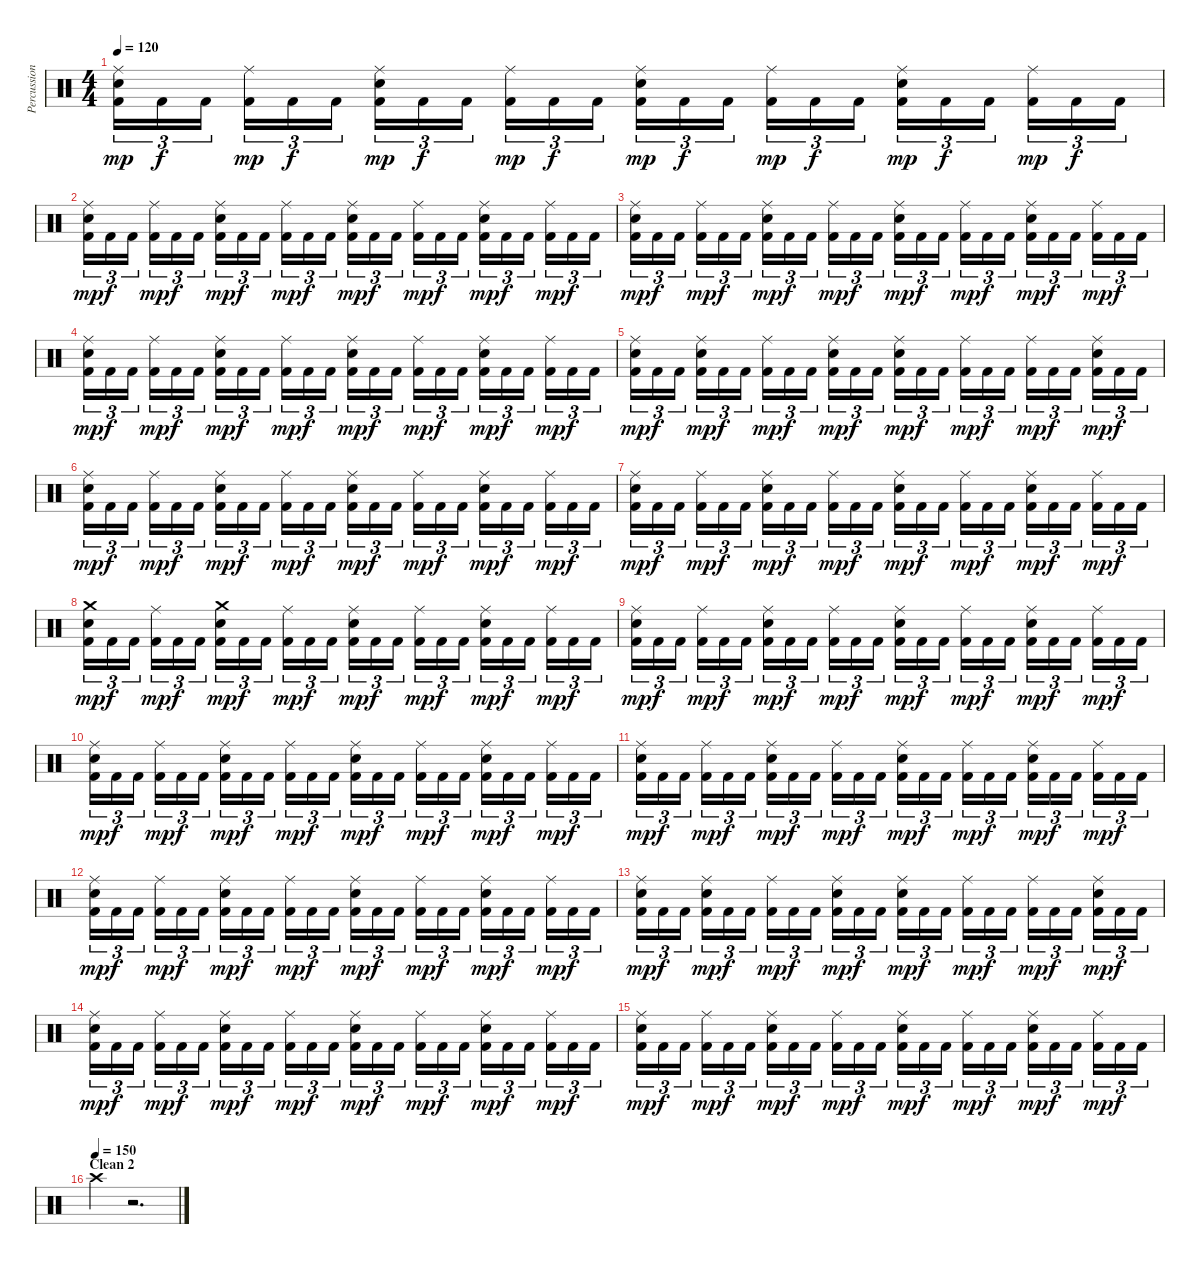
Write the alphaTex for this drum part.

\track ("Percussion" "Percussion") {instrument percussion}
\staff {score}
\articulation defaults
\ts (4 4)
\tempo 120
\clef neutral
\ks c
("Ride (middle)" "Electric Snare (hit)" "Kick (hit) 2").16{tu (3 2) dy mp} "Kick (hit) 2".16{tu (3 2) dy f} "Kick (hit) 2".16{tu (3 2)} ("Ride (middle)" "Kick (hit) 2").16{tu (3 2) dy mp} "Kick (hit) 2".16{tu (3 2) dy f} "Kick (hit) 2".16{tu (3 2)} ("Ride (middle)" "Electric Snare (hit)" "Kick (hit) 2").16{tu (3 2) dy mp} "Kick (hit) 2".16{tu (3 2) dy f} "Kick (hit) 2".16{tu (3 2)} ("Ride (middle)" "Kick (hit) 2").16{tu (3 2) dy mp} "Kick (hit) 2".16{tu (3 2) dy f} "Kick (hit) 2".16{tu (3 2)} ("Ride (middle)" "Electric Snare (hit)" "Kick (hit) 2").16{tu (3 2) dy mp} "Kick (hit) 2".16{tu (3 2) dy f} "Kick (hit) 2".16{tu (3 2)} ("Ride (middle)" "Kick (hit) 2").16{tu (3 2) dy mp} "Kick (hit) 2".16{tu (3 2) dy f} "Kick (hit) 2".16{tu (3 2)} ("Ride (middle)" "Electric Snare (hit)" "Kick (hit) 2").16{tu (3 2) dy mp} "Kick (hit) 2".16{tu (3 2) dy f} "Kick (hit) 2".16{tu (3 2)} ("Ride (middle)" "Kick (hit) 2").16{tu (3 2) dy mp} "Kick (hit) 2".16{tu (3 2) dy f} "Kick (hit) 2".16{tu (3 2)} |
("Ride (middle)" "Electric Snare (hit)" "Kick (hit) 2").16{tu (3 2) dy mp} "Kick (hit) 2".16{tu (3 2) dy f} "Kick (hit) 2".16{tu (3 2)} ("Ride (middle)" "Kick (hit) 2").16{tu (3 2) dy mp} "Kick (hit) 2".16{tu (3 2) dy f} "Kick (hit) 2".16{tu (3 2)} ("Ride (middle)" "Electric Snare (hit)" "Kick (hit) 2").16{tu (3 2) dy mp} "Kick (hit) 2".16{tu (3 2) dy f} "Kick (hit) 2".16{tu (3 2)} ("Ride (middle)" "Kick (hit) 2").16{tu (3 2) dy mp} "Kick (hit) 2".16{tu (3 2) dy f} "Kick (hit) 2".16{tu (3 2)} ("Ride (middle)" "Electric Snare (hit)" "Kick (hit) 2").16{tu (3 2) dy mp} "Kick (hit) 2".16{tu (3 2) dy f} "Kick (hit) 2".16{tu (3 2)} ("Ride (middle)" "Kick (hit) 2").16{tu (3 2) dy mp} "Kick (hit) 2".16{tu (3 2) dy f} "Kick (hit) 2".16{tu (3 2)} ("Ride (middle)" "Electric Snare (hit)" "Kick (hit) 2").16{tu (3 2) dy mp} "Kick (hit) 2".16{tu (3 2) dy f} "Kick (hit) 2".16{tu (3 2)} ("Ride (middle)" "Kick (hit) 2").16{tu (3 2) dy mp} "Kick (hit) 2".16{tu (3 2) dy f} "Kick (hit) 2".16{tu (3 2)} |
("Ride (middle)" "Electric Snare (hit)" "Kick (hit) 2").16{tu (3 2) dy mp} "Kick (hit) 2".16{tu (3 2) dy f} "Kick (hit) 2".16{tu (3 2)} ("Ride (middle)" "Kick (hit) 2").16{tu (3 2) dy mp} "Kick (hit) 2".16{tu (3 2) dy f} "Kick (hit) 2".16{tu (3 2)} ("Ride (middle)" "Electric Snare (hit)" "Kick (hit) 2").16{tu (3 2) dy mp} "Kick (hit) 2".16{tu (3 2) dy f} "Kick (hit) 2".16{tu (3 2)} ("Ride (middle)" "Kick (hit) 2").16{tu (3 2) dy mp} "Kick (hit) 2".16{tu (3 2) dy f} "Kick (hit) 2".16{tu (3 2)} ("Ride (middle)" "Electric Snare (hit)" "Kick (hit) 2").16{tu (3 2) dy mp} "Kick (hit) 2".16{tu (3 2) dy f} "Kick (hit) 2".16{tu (3 2)} ("Ride (middle)" "Kick (hit) 2").16{tu (3 2) dy mp} "Kick (hit) 2".16{tu (3 2) dy f} "Kick (hit) 2".16{tu (3 2)} ("Ride (middle)" "Electric Snare (hit)" "Kick (hit) 2").16{tu (3 2) dy mp} "Kick (hit) 2".16{tu (3 2) dy f} "Kick (hit) 2".16{tu (3 2)} ("Ride (middle)" "Kick (hit) 2").16{tu (3 2) dy mp} "Kick (hit) 2".16{tu (3 2) dy f} "Kick (hit) 2".16{tu (3 2)} |
("Ride (middle)" "Electric Snare (hit)" "Kick (hit) 2").16{tu (3 2) dy mp} "Kick (hit) 2".16{tu (3 2) dy f} "Kick (hit) 2".16{tu (3 2)} ("Ride (middle)" "Kick (hit) 2").16{tu (3 2) dy mp} "Kick (hit) 2".16{tu (3 2) dy f} "Kick (hit) 2".16{tu (3 2)} ("Ride (middle)" "Electric Snare (hit)" "Kick (hit) 2").16{tu (3 2) dy mp} "Kick (hit) 2".16{tu (3 2) dy f} "Kick (hit) 2".16{tu (3 2)} ("Ride (middle)" "Kick (hit) 2").16{tu (3 2) dy mp} "Kick (hit) 2".16{tu (3 2) dy f} "Kick (hit) 2".16{tu (3 2)} ("Ride (middle)" "Electric Snare (hit)" "Kick (hit) 2").16{tu (3 2) dy mp} "Kick (hit) 2".16{tu (3 2) dy f} "Kick (hit) 2".16{tu (3 2)} ("Ride (middle)" "Kick (hit) 2").16{tu (3 2) dy mp} "Kick (hit) 2".16{tu (3 2) dy f} "Kick (hit) 2".16{tu (3 2)} ("Ride (middle)" "Electric Snare (hit)" "Kick (hit) 2").16{tu (3 2) dy mp} "Kick (hit) 2".16{tu (3 2) dy f} "Kick (hit) 2".16{tu (3 2)} ("Ride (middle)" "Kick (hit) 2").16{tu (3 2) dy mp} "Kick (hit) 2".16{tu (3 2) dy f} "Kick (hit) 2".16{tu (3 2)} |
("Ride (middle)" "Electric Snare (hit)" "Kick (hit) 2").16{tu (3 2) dy mp} "Kick (hit) 2".16{tu (3 2) dy f} "Kick (hit) 2".16{tu (3 2)} ("Ride (middle)" "Electric Snare (hit)" "Kick (hit) 2").16{tu (3 2) dy mp} "Kick (hit) 2".16{tu (3 2) dy f} "Kick (hit) 2".16{tu (3 2)} ("Ride (middle)" "Kick (hit) 2").16{tu (3 2) dy mp} "Kick (hit) 2".16{tu (3 2) dy f} "Kick (hit) 2".16{tu (3 2)} ("Ride (middle)" "Electric Snare (hit)" "Kick (hit) 2").16{tu (3 2) dy mp} "Kick (hit) 2".16{tu (3 2) dy f} "Kick (hit) 2".16{tu (3 2)} ("Ride (middle)" "Electric Snare (hit)" "Kick (hit) 2").16{tu (3 2) dy mp} "Kick (hit) 2".16{tu (3 2) dy f} "Kick (hit) 2".16{tu (3 2)} ("Ride (middle)" "Kick (hit) 2").16{tu (3 2) dy mp} "Kick (hit) 2".16{tu (3 2) dy f} "Kick (hit) 2".16{tu (3 2)} ("Ride (middle)" "Kick (hit) 2").16{tu (3 2) dy mp} "Kick (hit) 2".16{tu (3 2) dy f} "Kick (hit) 2".16{tu (3 2)} ("Ride (middle)" "Electric Snare (hit)" "Kick (hit) 2").16{tu (3 2) dy mp} "Kick (hit) 2".16{tu (3 2) dy f} "Kick (hit) 2".16{tu (3 2)} |
("Ride (middle)" "Electric Snare (hit)" "Kick (hit) 2").16{tu (3 2) dy mp} "Kick (hit) 2".16{tu (3 2) dy f} "Kick (hit) 2".16{tu (3 2)} ("Ride (middle)" "Kick (hit) 2").16{tu (3 2) dy mp} "Kick (hit) 2".16{tu (3 2) dy f} "Kick (hit) 2".16{tu (3 2)} ("Ride (middle)" "Electric Snare (hit)" "Kick (hit) 2").16{tu (3 2) dy mp} "Kick (hit) 2".16{tu (3 2) dy f} "Kick (hit) 2".16{tu (3 2)} ("Ride (middle)" "Kick (hit) 2").16{tu (3 2) dy mp} "Kick (hit) 2".16{tu (3 2) dy f} "Kick (hit) 2".16{tu (3 2)} ("Ride (middle)" "Electric Snare (hit)" "Kick (hit) 2").16{tu (3 2) dy mp} "Kick (hit) 2".16{tu (3 2) dy f} "Kick (hit) 2".16{tu (3 2)} ("Ride (middle)" "Kick (hit) 2").16{tu (3 2) dy mp} "Kick (hit) 2".16{tu (3 2) dy f} "Kick (hit) 2".16{tu (3 2)} ("Ride (middle)" "Electric Snare (hit)" "Kick (hit) 2").16{tu (3 2) dy mp} "Kick (hit) 2".16{tu (3 2) dy f} "Kick (hit) 2".16{tu (3 2)} ("Ride (middle)" "Kick (hit) 2").16{tu (3 2) dy mp} "Kick (hit) 2".16{tu (3 2) dy f} "Kick (hit) 2".16{tu (3 2)} |
("Ride (middle)" "Electric Snare (hit)" "Kick (hit) 2").16{tu (3 2) dy mp} "Kick (hit) 2".16{tu (3 2) dy f} "Kick (hit) 2".16{tu (3 2)} ("Ride (middle)" "Kick (hit) 2").16{tu (3 2) dy mp} "Kick (hit) 2".16{tu (3 2) dy f} "Kick (hit) 2".16{tu (3 2)} ("Ride (middle)" "Electric Snare (hit)" "Kick (hit) 2").16{tu (3 2) dy mp} "Kick (hit) 2".16{tu (3 2) dy f} "Kick (hit) 2".16{tu (3 2)} ("Ride (middle)" "Kick (hit) 2").16{tu (3 2) dy mp} "Kick (hit) 2".16{tu (3 2) dy f} "Kick (hit) 2".16{tu (3 2)} ("Ride (middle)" "Electric Snare (hit)" "Kick (hit) 2").16{tu (3 2) dy mp} "Kick (hit) 2".16{tu (3 2) dy f} "Kick (hit) 2".16{tu (3 2)} ("Ride (middle)" "Kick (hit) 2").16{tu (3 2) dy mp} "Kick (hit) 2".16{tu (3 2) dy f} "Kick (hit) 2".16{tu (3 2)} ("Ride (middle)" "Electric Snare (hit)" "Kick (hit) 2").16{tu (3 2) dy mp} "Kick (hit) 2".16{tu (3 2) dy f} "Kick (hit) 2".16{tu (3 2)} ("Ride (middle)" "Kick (hit) 2").16{tu (3 2) dy mp} "Kick (hit) 2".16{tu (3 2) dy f} "Kick (hit) 2".16{tu (3 2)} |
("Crash medium (hit)" "Electric Snare (hit)" "Kick (hit) 2").16{tu (3 2) dy mp} "Kick (hit) 2".16{tu (3 2) dy f} "Kick (hit) 2".16{tu (3 2)} ("Ride (middle)" "Kick (hit) 2").16{tu (3 2) dy mp} "Kick (hit) 2".16{tu (3 2) dy f} "Kick (hit) 2".16{tu (3 2)} ("Crash medium (hit)" "Electric Snare (hit)" "Kick (hit) 2").16{tu (3 2) dy mp} "Kick (hit) 2".16{tu (3 2) dy f} "Kick (hit) 2".16{tu (3 2)} ("Ride (middle)" "Kick (hit) 2").16{tu (3 2) dy mp} "Kick (hit) 2".16{tu (3 2) dy f} "Kick (hit) 2".16{tu (3 2)} ("Ride (middle)" "Electric Snare (hit)" "Kick (hit) 2").16{tu (3 2) dy mp} "Kick (hit) 2".16{tu (3 2) dy f} "Kick (hit) 2".16{tu (3 2)} ("Ride (middle)" "Kick (hit) 2").16{tu (3 2) dy mp} "Kick (hit) 2".16{tu (3 2) dy f} "Kick (hit) 2".16{tu (3 2)} ("Ride (middle)" "Electric Snare (hit)" "Kick (hit) 2").16{tu (3 2) dy mp} "Kick (hit) 2".16{tu (3 2) dy f} "Kick (hit) 2".16{tu (3 2)} ("Ride (middle)" "Kick (hit) 2").16{tu (3 2) dy mp} "Kick (hit) 2".16{tu (3 2) dy f} "Kick (hit) 2".16{tu (3 2)} |
("Ride (middle)" "Electric Snare (hit)" "Kick (hit) 2").16{tu (3 2) dy mp} "Kick (hit) 2".16{tu (3 2) dy f} "Kick (hit) 2".16{tu (3 2)} ("Ride (middle)" "Kick (hit) 2").16{tu (3 2) dy mp} "Kick (hit) 2".16{tu (3 2) dy f} "Kick (hit) 2".16{tu (3 2)} ("Ride (middle)" "Electric Snare (hit)" "Kick (hit) 2").16{tu (3 2) dy mp} "Kick (hit) 2".16{tu (3 2) dy f} "Kick (hit) 2".16{tu (3 2)} ("Ride (middle)" "Kick (hit) 2").16{tu (3 2) dy mp} "Kick (hit) 2".16{tu (3 2) dy f} "Kick (hit) 2".16{tu (3 2)} ("Ride (middle)" "Electric Snare (hit)" "Kick (hit) 2").16{tu (3 2) dy mp} "Kick (hit) 2".16{tu (3 2) dy f} "Kick (hit) 2".16{tu (3 2)} ("Ride (middle)" "Kick (hit) 2").16{tu (3 2) dy mp} "Kick (hit) 2".16{tu (3 2) dy f} "Kick (hit) 2".16{tu (3 2)} ("Ride (middle)" "Electric Snare (hit)" "Kick (hit) 2").16{tu (3 2) dy mp} "Kick (hit) 2".16{tu (3 2) dy f} "Kick (hit) 2".16{tu (3 2)} ("Ride (middle)" "Kick (hit) 2").16{tu (3 2) dy mp} "Kick (hit) 2".16{tu (3 2) dy f} "Kick (hit) 2".16{tu (3 2)} |
("Ride (middle)" "Electric Snare (hit)" "Kick (hit) 2").16{tu (3 2) dy mp} "Kick (hit) 2".16{tu (3 2) dy f} "Kick (hit) 2".16{tu (3 2)} ("Ride (middle)" "Kick (hit) 2").16{tu (3 2) dy mp} "Kick (hit) 2".16{tu (3 2) dy f} "Kick (hit) 2".16{tu (3 2)} ("Ride (middle)" "Electric Snare (hit)" "Kick (hit) 2").16{tu (3 2) dy mp} "Kick (hit) 2".16{tu (3 2) dy f} "Kick (hit) 2".16{tu (3 2)} ("Ride (middle)" "Kick (hit) 2").16{tu (3 2) dy mp} "Kick (hit) 2".16{tu (3 2) dy f} "Kick (hit) 2".16{tu (3 2)} ("Ride (middle)" "Electric Snare (hit)" "Kick (hit) 2").16{tu (3 2) dy mp} "Kick (hit) 2".16{tu (3 2) dy f} "Kick (hit) 2".16{tu (3 2)} ("Ride (middle)" "Kick (hit) 2").16{tu (3 2) dy mp} "Kick (hit) 2".16{tu (3 2) dy f} "Kick (hit) 2".16{tu (3 2)} ("Ride (middle)" "Electric Snare (hit)" "Kick (hit) 2").16{tu (3 2) dy mp} "Kick (hit) 2".16{tu (3 2) dy f} "Kick (hit) 2".16{tu (3 2)} ("Ride (middle)" "Kick (hit) 2").16{tu (3 2) dy mp} "Kick (hit) 2".16{tu (3 2) dy f} "Kick (hit) 2".16{tu (3 2)} |
("Ride (middle)" "Electric Snare (hit)" "Kick (hit) 2").16{tu (3 2) dy mp} "Kick (hit) 2".16{tu (3 2) dy f} "Kick (hit) 2".16{tu (3 2)} ("Ride (middle)" "Kick (hit) 2").16{tu (3 2) dy mp} "Kick (hit) 2".16{tu (3 2) dy f} "Kick (hit) 2".16{tu (3 2)} ("Ride (middle)" "Electric Snare (hit)" "Kick (hit) 2").16{tu (3 2) dy mp} "Kick (hit) 2".16{tu (3 2) dy f} "Kick (hit) 2".16{tu (3 2)} ("Ride (middle)" "Kick (hit) 2").16{tu (3 2) dy mp} "Kick (hit) 2".16{tu (3 2) dy f} "Kick (hit) 2".16{tu (3 2)} ("Ride (middle)" "Electric Snare (hit)" "Kick (hit) 2").16{tu (3 2) dy mp} "Kick (hit) 2".16{tu (3 2) dy f} "Kick (hit) 2".16{tu (3 2)} ("Ride (middle)" "Kick (hit) 2").16{tu (3 2) dy mp} "Kick (hit) 2".16{tu (3 2) dy f} "Kick (hit) 2".16{tu (3 2)} ("Ride (middle)" "Electric Snare (hit)" "Kick (hit) 2").16{tu (3 2) dy mp} "Kick (hit) 2".16{tu (3 2) dy f} "Kick (hit) 2".16{tu (3 2)} ("Ride (middle)" "Kick (hit) 2").16{tu (3 2) dy mp} "Kick (hit) 2".16{tu (3 2) dy f} "Kick (hit) 2".16{tu (3 2)} |
("Ride (middle)" "Electric Snare (hit)" "Kick (hit) 2").16{tu (3 2) dy mp} "Kick (hit) 2".16{tu (3 2) dy f} "Kick (hit) 2".16{tu (3 2)} ("Ride (middle)" "Kick (hit) 2").16{tu (3 2) dy mp} "Kick (hit) 2".16{tu (3 2) dy f} "Kick (hit) 2".16{tu (3 2)} ("Ride (middle)" "Electric Snare (hit)" "Kick (hit) 2").16{tu (3 2) dy mp} "Kick (hit) 2".16{tu (3 2) dy f} "Kick (hit) 2".16{tu (3 2)} ("Ride (middle)" "Kick (hit) 2").16{tu (3 2) dy mp} "Kick (hit) 2".16{tu (3 2) dy f} "Kick (hit) 2".16{tu (3 2)} ("Ride (middle)" "Electric Snare (hit)" "Kick (hit) 2").16{tu (3 2) dy mp} "Kick (hit) 2".16{tu (3 2) dy f} "Kick (hit) 2".16{tu (3 2)} ("Ride (middle)" "Kick (hit) 2").16{tu (3 2) dy mp} "Kick (hit) 2".16{tu (3 2) dy f} "Kick (hit) 2".16{tu (3 2)} ("Ride (middle)" "Electric Snare (hit)" "Kick (hit) 2").16{tu (3 2) dy mp} "Kick (hit) 2".16{tu (3 2) dy f} "Kick (hit) 2".16{tu (3 2)} ("Ride (middle)" "Kick (hit) 2").16{tu (3 2) dy mp} "Kick (hit) 2".16{tu (3 2) dy f} "Kick (hit) 2".16{tu (3 2)} |
("Ride (middle)" "Electric Snare (hit)" "Kick (hit) 2").16{tu (3 2) dy mp} "Kick (hit) 2".16{tu (3 2) dy f} "Kick (hit) 2".16{tu (3 2)} ("Ride (middle)" "Electric Snare (hit)" "Kick (hit) 2").16{tu (3 2) dy mp} "Kick (hit) 2".16{tu (3 2) dy f} "Kick (hit) 2".16{tu (3 2)} ("Ride (middle)" "Kick (hit) 2").16{tu (3 2) dy mp} "Kick (hit) 2".16{tu (3 2) dy f} "Kick (hit) 2".16{tu (3 2)} ("Ride (middle)" "Electric Snare (hit)" "Kick (hit) 2").16{tu (3 2) dy mp} "Kick (hit) 2".16{tu (3 2) dy f} "Kick (hit) 2".16{tu (3 2)} ("Ride (middle)" "Electric Snare (hit)" "Kick (hit) 2").16{tu (3 2) dy mp} "Kick (hit) 2".16{tu (3 2) dy f} "Kick (hit) 2".16{tu (3 2)} ("Ride (middle)" "Kick (hit) 2").16{tu (3 2) dy mp} "Kick (hit) 2".16{tu (3 2) dy f} "Kick (hit) 2".16{tu (3 2)} ("Ride (middle)" "Kick (hit) 2").16{tu (3 2) dy mp} "Kick (hit) 2".16{tu (3 2) dy f} "Kick (hit) 2".16{tu (3 2)} ("Ride (middle)" "Electric Snare (hit)" "Kick (hit) 2").16{tu (3 2) dy mp} "Kick (hit) 2".16{tu (3 2) dy f} "Kick (hit) 2".16{tu (3 2)} |
("Ride (middle)" "Electric Snare (hit)" "Kick (hit) 2").16{tu (3 2) dy mp} "Kick (hit) 2".16{tu (3 2) dy f} "Kick (hit) 2".16{tu (3 2)} ("Ride (middle)" "Kick (hit) 2").16{tu (3 2) dy mp} "Kick (hit) 2".16{tu (3 2) dy f} "Kick (hit) 2".16{tu (3 2)} ("Ride (middle)" "Electric Snare (hit)" "Kick (hit) 2").16{tu (3 2) dy mp} "Kick (hit) 2".16{tu (3 2) dy f} "Kick (hit) 2".16{tu (3 2)} ("Ride (middle)" "Kick (hit) 2").16{tu (3 2) dy mp} "Kick (hit) 2".16{tu (3 2) dy f} "Kick (hit) 2".16{tu (3 2)} ("Ride (middle)" "Electric Snare (hit)" "Kick (hit) 2").16{tu (3 2) dy mp} "Kick (hit) 2".16{tu (3 2) dy f} "Kick (hit) 2".16{tu (3 2)} ("Ride (middle)" "Kick (hit) 2").16{tu (3 2) dy mp} "Kick (hit) 2".16{tu (3 2) dy f} "Kick (hit) 2".16{tu (3 2)} ("Ride (middle)" "Electric Snare (hit)" "Kick (hit) 2").16{tu (3 2) dy mp} "Kick (hit) 2".16{tu (3 2) dy f} "Kick (hit) 2".16{tu (3 2)} ("Ride (middle)" "Kick (hit) 2").16{tu (3 2) dy mp} "Kick (hit) 2".16{tu (3 2) dy f} "Kick (hit) 2".16{tu (3 2)} |
("Ride (middle)" "Electric Snare (hit)" "Kick (hit) 2").16{tu (3 2) dy mp} "Kick (hit) 2".16{tu (3 2) dy f} "Kick (hit) 2".16{tu (3 2)} ("Ride (middle)" "Kick (hit) 2").16{tu (3 2) dy mp} "Kick (hit) 2".16{tu (3 2) dy f} "Kick (hit) 2".16{tu (3 2)} ("Ride (middle)" "Electric Snare (hit)" "Kick (hit) 2").16{tu (3 2) dy mp} "Kick (hit) 2".16{tu (3 2) dy f} "Kick (hit) 2".16{tu (3 2)} ("Ride (middle)" "Kick (hit) 2").16{tu (3 2) dy mp} "Kick (hit) 2".16{tu (3 2) dy f} "Kick (hit) 2".16{tu (3 2)} ("Ride (middle)" "Electric Snare (hit)" "Kick (hit) 2").16{tu (3 2) dy mp} "Kick (hit) 2".16{tu (3 2) dy f} "Kick (hit) 2".16{tu (3 2)} ("Ride (middle)" "Kick (hit) 2").16{tu (3 2) dy mp} "Kick (hit) 2".16{tu (3 2) dy f} "Kick (hit) 2".16{tu (3 2)} ("Ride (middle)" "Electric Snare (hit)" "Kick (hit) 2").16{tu (3 2) dy mp} "Kick (hit) 2".16{tu (3 2) dy f} "Kick (hit) 2".16{tu (3 2)} ("Ride (middle)" "Kick (hit) 2").16{tu (3 2) dy mp} "Kick (hit) 2".16{tu (3 2) dy f} "Kick (hit) 2".16{tu (3 2)} |
\section ("" "Clean 2")
\tempo (150)
"Crash high (hit)".4 r.2{d}
